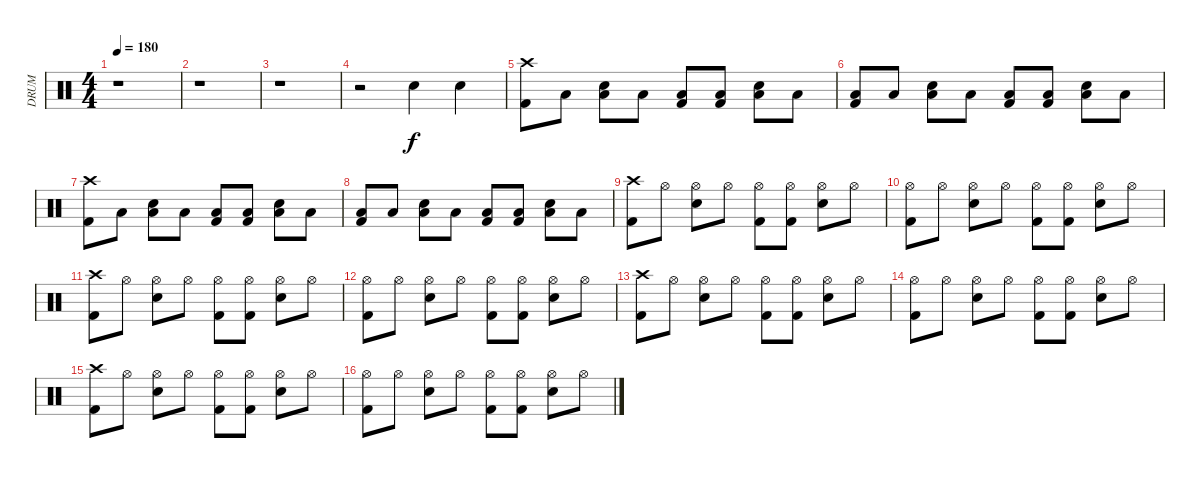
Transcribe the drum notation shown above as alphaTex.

\track ("DRUM" "DRUM") {instrument percussion}
\staff {score}
\articulation defaults
\ts (4 4)
\tempo 180
\clef neutral
\ks c
r.1{dy f} |
r.1 |
r.1 |
r.2 "Snare (hit) 2".4 "Snare (hit) 2".4 |
("Crash high (hit)" "Kick (hit) 2").8 "Low Floor Tom (hit)".8{volume 10} ("Low Floor Tom (hit)" "Snare (hit) 2").8 "Low Floor Tom (hit)".8{volume 10} ("Low Floor Tom (hit)" "Kick (hit) 2").8 ("Low Floor Tom (hit)" "Kick (hit) 2").8{volume 10} ("Low Floor Tom (hit)" "Snare (hit) 2").8 "Low Floor Tom (hit)".8{volume 10} |
("Low Floor Tom (hit)" "Kick (hit) 2").8 "Low Floor Tom (hit)".8{volume 10} ("Low Floor Tom (hit)" "Snare (hit) 2").8 "Low Floor Tom (hit)".8{volume 10} ("Low Floor Tom (hit)" "Kick (hit) 2").8 ("Low Floor Tom (hit)" "Kick (hit) 2").8{volume 10} ("Low Floor Tom (hit)" "Snare (hit) 2").8 "Low Floor Tom (hit)".8{volume 10} |
("Crash high (hit)" "Kick (hit) 2").8 "Low Floor Tom (hit)".8{volume 10} ("Low Floor Tom (hit)" "Snare (hit) 2").8 "Low Floor Tom (hit)".8{volume 10} ("Low Floor Tom (hit)" "Kick (hit) 2").8 ("Low Floor Tom (hit)" "Kick (hit) 2").8{volume 10} ("Low Floor Tom (hit)" "Snare (hit) 2").8 "Low Floor Tom (hit)".8{volume 10} |
("Low Floor Tom (hit)" "Kick (hit) 2").8 "Low Floor Tom (hit)".8{volume 10} ("Low Floor Tom (hit)" "Snare (hit) 2").8 "Low Floor Tom (hit)".8{volume 10} ("Low Floor Tom (hit)" "Kick (hit) 2").8 ("Low Floor Tom (hit)" "Kick (hit) 2").8{volume 10} ("Low Floor Tom (hit)" "Snare (hit) 2").8 "Low Floor Tom (hit)".8{volume 10} |
("Crash high (hit)" "Kick (hit) 2").8 "Hi-Hat (open)".8{volume 10} ("Hi-Hat (open)" "Snare (hit) 2").8 "Hi-Hat (open)".8{volume 10} ("Hi-Hat (open)" "Kick (hit) 2").8 ("Hi-Hat (open)" "Kick (hit) 2").8{volume 10} ("Hi-Hat (open)" "Snare (hit) 2").8 "Hi-Hat (open)".8{volume 10} |
("Hi-Hat (open)" "Kick (hit) 2").8 "Hi-Hat (open)".8{volume 10} ("Hi-Hat (open)" "Snare (hit) 2").8 "Hi-Hat (open)".8{volume 10} ("Hi-Hat (open)" "Kick (hit) 2").8 ("Hi-Hat (open)" "Kick (hit) 2").8{volume 10} ("Hi-Hat (open)" "Snare (hit) 2").8 "Hi-Hat (open)".8{volume 10} |
("Crash high (hit)" "Kick (hit) 2").8 "Hi-Hat (open)".8{volume 10} ("Hi-Hat (open)" "Snare (hit) 2").8 "Hi-Hat (open)".8{volume 10} ("Hi-Hat (open)" "Kick (hit) 2").8 ("Hi-Hat (open)" "Kick (hit) 2").8{volume 10} ("Hi-Hat (open)" "Snare (hit) 2").8 "Hi-Hat (open)".8{volume 10} |
("Hi-Hat (open)" "Kick (hit) 2").8 "Hi-Hat (open)".8{volume 10} ("Hi-Hat (open)" "Snare (hit) 2").8 "Hi-Hat (open)".8{volume 10} ("Hi-Hat (open)" "Kick (hit) 2").8 ("Hi-Hat (open)" "Kick (hit) 2").8{volume 10} ("Hi-Hat (open)" "Snare (hit) 2").8 "Hi-Hat (open)".8{volume 10} |
("Crash high (hit)" "Kick (hit) 2").8 "Hi-Hat (open)".8{volume 10} ("Hi-Hat (open)" "Snare (hit) 2").8 "Hi-Hat (open)".8{volume 10} ("Hi-Hat (open)" "Kick (hit) 2").8 ("Hi-Hat (open)" "Kick (hit) 2").8{volume 10} ("Hi-Hat (open)" "Snare (hit) 2").8 "Hi-Hat (open)".8{volume 10} |
("Hi-Hat (open)" "Kick (hit) 2").8 "Hi-Hat (open)".8{volume 10} ("Hi-Hat (open)" "Snare (hit) 2").8 "Hi-Hat (open)".8{volume 10} ("Hi-Hat (open)" "Kick (hit) 2").8 ("Hi-Hat (open)" "Kick (hit) 2").8{volume 10} ("Hi-Hat (open)" "Snare (hit) 2").8 "Hi-Hat (open)".8{volume 10} |
("Crash high (hit)" "Kick (hit) 2").8 "Hi-Hat (open)".8{volume 10} ("Hi-Hat (open)" "Snare (hit) 2").8 "Hi-Hat (open)".8{volume 10} ("Hi-Hat (open)" "Kick (hit) 2").8 ("Hi-Hat (open)" "Kick (hit) 2").8{volume 10} ("Hi-Hat (open)" "Snare (hit) 2").8 "Hi-Hat (open)".8{volume 10} |
("Hi-Hat (open)" "Kick (hit) 2").8 "Hi-Hat (open)".8{volume 10} ("Hi-Hat (open)" "Snare (hit) 2").8 "Hi-Hat (open)".8{volume 10} ("Hi-Hat (open)" "Kick (hit) 2").8 ("Hi-Hat (open)" "Kick (hit) 2").8{volume 10} ("Hi-Hat (open)" "Snare (hit) 2").8 "Hi-Hat (open)".8{volume 10}
